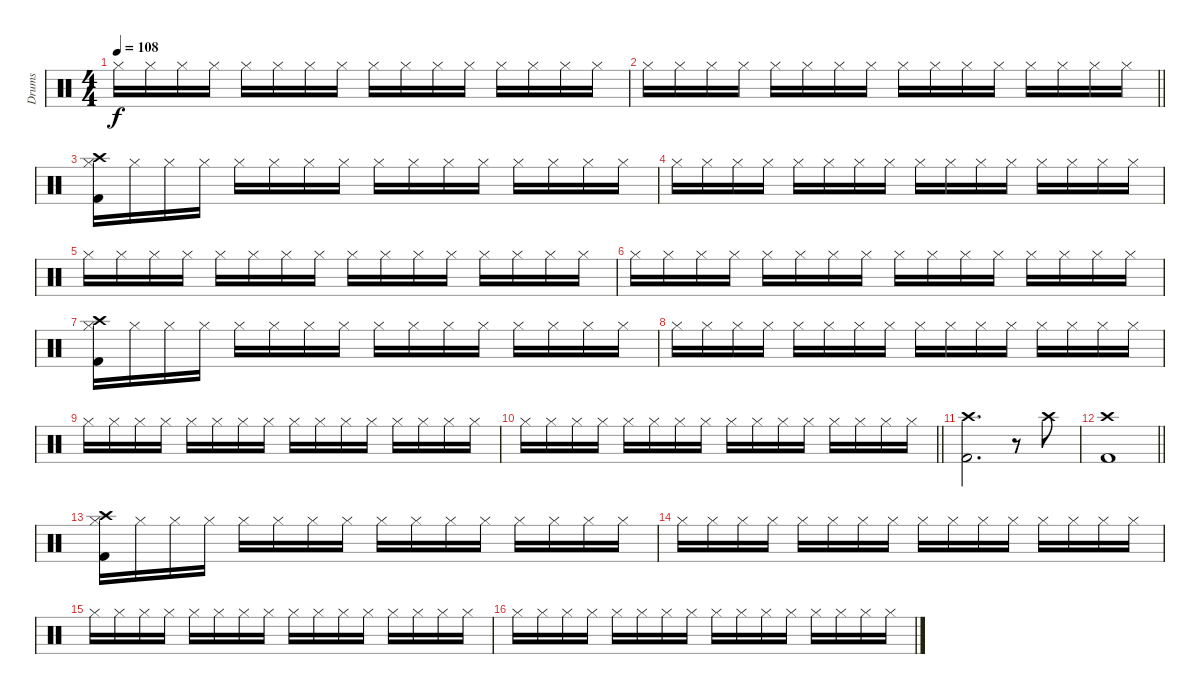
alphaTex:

\track ("Drums" "Drums") {instrument percussion}
\staff {score}
\articulation defaults
\ts (4 4)
\tempo 108
\clef neutral
\ks c "Hi-Hat (closed)".16{dy f} "Hi-Hat (closed)".16 "Hi-Hat (closed)".16 "Hi-Hat (closed)".16 "Hi-Hat (closed)".16 "Hi-Hat (closed)".16 "Hi-Hat (closed)".16 "Hi-Hat (closed)".16 "Hi-Hat (closed)".16 "Hi-Hat (closed)".16 "Hi-Hat (closed)".16 "Hi-Hat (closed)".16 "Hi-Hat (closed)".16 "Hi-Hat (closed)".16 "Hi-Hat (closed)".16 "Hi-Hat (closed)".16
|
\barLineRight lightlight "Hi-Hat (closed)".16 "Hi-Hat (closed)".16 "Hi-Hat (closed)".16 "Hi-Hat (closed)".16 "Hi-Hat (closed)".16 "Hi-Hat (closed)".16 "Hi-Hat (closed)".16 "Hi-Hat (closed)".16 "Hi-Hat (closed)".16 "Hi-Hat (closed)".16 "Hi-Hat (closed)".16 "Hi-Hat (closed)".16 "Hi-Hat (closed)".16 "Hi-Hat (closed)".16 "Hi-Hat (closed)".16 "Hi-Hat (closed)".16
|
\section ("" "")
("Crash high (hit)" "Hi-Hat (closed)" "Kick (hit) 2").16 "Hi-Hat (closed)".16 "Hi-Hat (closed)".16 "Hi-Hat (closed)".16 "Hi-Hat (closed)".16 "Hi-Hat (closed)".16 "Hi-Hat (closed)".16 "Hi-Hat (closed)".16 "Hi-Hat (closed)".16 "Hi-Hat (closed)".16 "Hi-Hat (closed)".16 "Hi-Hat (closed)".16 "Hi-Hat (closed)".16 "Hi-Hat (closed)".16 "Hi-Hat (closed)".16 "Hi-Hat (closed)".16 |
"Hi-Hat (closed)".16 "Hi-Hat (closed)".16 "Hi-Hat (closed)".16 "Hi-Hat (closed)".16 "Hi-Hat (closed)".16 "Hi-Hat (closed)".16 "Hi-Hat (closed)".16 "Hi-Hat (closed)".16 "Hi-Hat (closed)".16 "Hi-Hat (closed)".16 "Hi-Hat (closed)".16 "Hi-Hat (closed)".16 "Hi-Hat (closed)".16 "Hi-Hat (closed)".16 "Hi-Hat (closed)".16 "Hi-Hat (closed)".16 |
"Hi-Hat (closed)".16 "Hi-Hat (closed)".16 "Hi-Hat (closed)".16 "Hi-Hat (closed)".16 "Hi-Hat (closed)".16 "Hi-Hat (closed)".16 "Hi-Hat (closed)".16 "Hi-Hat (closed)".16 "Hi-Hat (closed)".16 "Hi-Hat (closed)".16 "Hi-Hat (closed)".16 "Hi-Hat (closed)".16 "Hi-Hat (closed)".16 "Hi-Hat (closed)".16 "Hi-Hat (closed)".16 "Hi-Hat (closed)".16 |
"Hi-Hat (closed)".16 "Hi-Hat (closed)".16 "Hi-Hat (closed)".16 "Hi-Hat (closed)".16 "Hi-Hat (closed)".16 "Hi-Hat (closed)".16 "Hi-Hat (closed)".16 "Hi-Hat (closed)".16 "Hi-Hat (closed)".16 "Hi-Hat (closed)".16 "Hi-Hat (closed)".16 "Hi-Hat (closed)".16 "Hi-Hat (closed)".16 "Hi-Hat (closed)".16 "Hi-Hat (closed)".16 "Hi-Hat (closed)".16 |
("Crash high (hit)" "Hi-Hat (closed)" "Kick (hit) 2").16 "Hi-Hat (closed)".16 "Hi-Hat (closed)".16 "Hi-Hat (closed)".16 "Hi-Hat (closed)".16 "Hi-Hat (closed)".16 "Hi-Hat (closed)".16 "Hi-Hat (closed)".16 "Hi-Hat (closed)".16 "Hi-Hat (closed)".16 "Hi-Hat (closed)".16 "Hi-Hat (closed)".16 "Hi-Hat (closed)".16 "Hi-Hat (closed)".16 "Hi-Hat (closed)".16 "Hi-Hat (closed)".16 |
"Hi-Hat (closed)".16 "Hi-Hat (closed)".16 "Hi-Hat (closed)".16 "Hi-Hat (closed)".16 "Hi-Hat (closed)".16 "Hi-Hat (closed)".16 "Hi-Hat (closed)".16 "Hi-Hat (closed)".16 "Hi-Hat (closed)".16 "Hi-Hat (closed)".16 "Hi-Hat (closed)".16 "Hi-Hat (closed)".16 "Hi-Hat (closed)".16 "Hi-Hat (closed)".16 "Hi-Hat (closed)".16 "Hi-Hat (closed)".16 |
"Hi-Hat (closed)".16 "Hi-Hat (closed)".16 "Hi-Hat (closed)".16 "Hi-Hat (closed)".16 "Hi-Hat (closed)".16 "Hi-Hat (closed)".16 "Hi-Hat (closed)".16 "Hi-Hat (closed)".16 "Hi-Hat (closed)".16 "Hi-Hat (closed)".16 "Hi-Hat (closed)".16 "Hi-Hat (closed)".16 "Hi-Hat (closed)".16 "Hi-Hat (closed)".16 "Hi-Hat (closed)".16 "Hi-Hat (closed)".16 |
\barLineRight lightlight "Hi-Hat (closed)".16 "Hi-Hat (closed)".16 "Hi-Hat (closed)".16 "Hi-Hat (closed)".16 "Hi-Hat (closed)".16 "Hi-Hat (closed)".16 "Hi-Hat (closed)".16 "Hi-Hat (closed)".16 "Hi-Hat (closed)".16 "Hi-Hat (closed)".16 "Hi-Hat (closed)".16 "Hi-Hat (closed)".16 "Hi-Hat (closed)".16 "Hi-Hat (closed)".16 "Hi-Hat (closed)".16 "Hi-Hat (closed)".16
|
\section ("" "")
("Crash high (hit)" "Kick (hit) 2").2{d} r.8 "Crash high (hit)".8 |
\barLineRight lightlight
("Crash high (hit)" "Kick (hit) 2").1 |
\section ("" "")
("Crash high (hit)" "Hi-Hat (closed)" "Kick (hit) 2").16 "Hi-Hat (closed)".16 "Hi-Hat (closed)".16 "Hi-Hat (closed)".16 "Hi-Hat (closed)".16 "Hi-Hat (closed)".16 "Hi-Hat (closed)".16 "Hi-Hat (closed)".16 "Hi-Hat (closed)".16 "Hi-Hat (closed)".16 "Hi-Hat (closed)".16 "Hi-Hat (closed)".16 "Hi-Hat (closed)".16 "Hi-Hat (closed)".16 "Hi-Hat (closed)".16 "Hi-Hat (closed)".16 |
"Hi-Hat (closed)".16 "Hi-Hat (closed)".16 "Hi-Hat (closed)".16 "Hi-Hat (closed)".16 "Hi-Hat (closed)".16 "Hi-Hat (closed)".16 "Hi-Hat (closed)".16 "Hi-Hat (closed)".16 "Hi-Hat (closed)".16 "Hi-Hat (closed)".16 "Hi-Hat (closed)".16 "Hi-Hat (closed)".16 "Hi-Hat (closed)".16 "Hi-Hat (closed)".16 "Hi-Hat (closed)".16 "Hi-Hat (closed)".16 |
"Hi-Hat (closed)".16 "Hi-Hat (closed)".16 "Hi-Hat (closed)".16 "Hi-Hat (closed)".16 "Hi-Hat (closed)".16 "Hi-Hat (closed)".16 "Hi-Hat (closed)".16 "Hi-Hat (closed)".16 "Hi-Hat (closed)".16 "Hi-Hat (closed)".16 "Hi-Hat (closed)".16 "Hi-Hat (closed)".16 "Hi-Hat (closed)".16 "Hi-Hat (closed)".16 "Hi-Hat (closed)".16 "Hi-Hat (closed)".16 |
"Hi-Hat (closed)".16 "Hi-Hat (closed)".16 "Hi-Hat (closed)".16 "Hi-Hat (closed)".16 "Hi-Hat (closed)".16 "Hi-Hat (closed)".16 "Hi-Hat (closed)".16 "Hi-Hat (closed)".16 "Hi-Hat (closed)".16 "Hi-Hat (closed)".16 "Hi-Hat (closed)".16 "Hi-Hat (closed)".16 "Hi-Hat (closed)".16 "Hi-Hat (closed)".16 "Hi-Hat (closed)".16 "Hi-Hat (closed)".16
